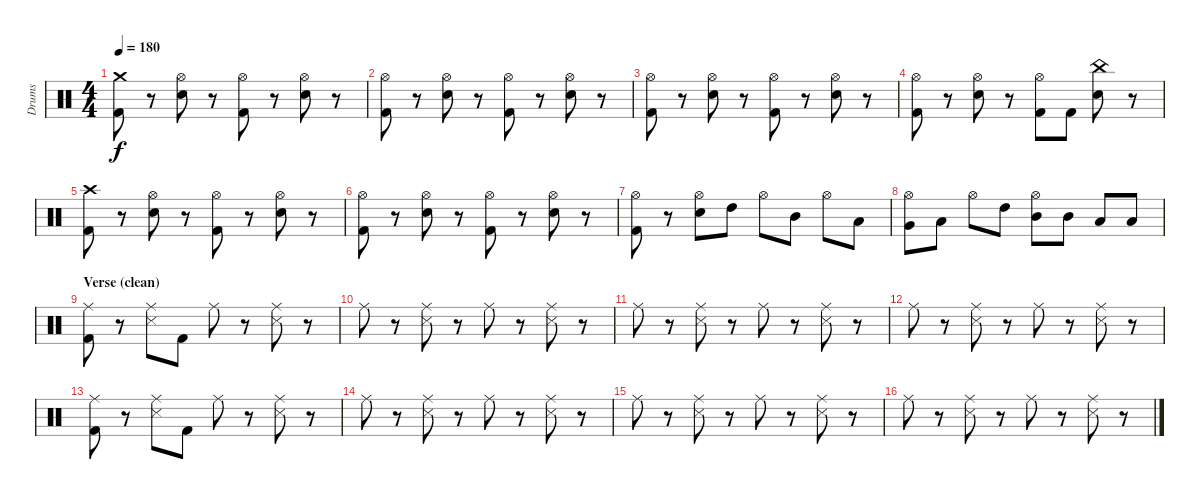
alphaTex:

\track ("Drums" "Drums") {instrument percussion}
\staff {score}
\articulation defaults
\ts (4 4)
\tempo 180
\clef neutral
\ks c
("Crash medium (hit)" "Kick (hit) 2").8{dy f} r.8 ("Hi-Hat (open)" "Snare (hit) 2").8 r.8 ("Hi-Hat (open)" "Kick (hit) 2").8 r.8 ("Hi-Hat (open)" "Snare (hit) 2").8 r.8 |
("Hi-Hat (open)" "Kick (hit) 2").8 r.8 ("Hi-Hat (open)" "Snare (hit) 2").8 r.8 ("Hi-Hat (open)" "Kick (hit) 2").8 r.8 ("Hi-Hat (open)" "Snare (hit) 2").8 r.8 |
("Hi-Hat (open)" "Kick (hit) 2").8 r.8 ("Hi-Hat (open)" "Snare (hit) 2").8 r.8 ("Hi-Hat (open)" "Kick (hit) 2").8 r.8 ("Hi-Hat (open)" "Snare (hit) 2").8 r.8 |
("Hi-Hat (open)" "Kick (hit) 2").8 r.8 ("Hi-Hat (open)" "Snare (hit) 2").8 r.8 ("Hi-Hat (open)" "Kick (hit) 2").8 "Kick (hit) 2".8 ("China (hit)" "Snare (hit) 2").8 r.8 |
("Crash high (hit)" "Kick (hit) 2").8 r.8 ("Hi-Hat (open)" "Snare (hit) 2").8 r.8 ("Hi-Hat (open)" "Kick (hit) 2").8 r.8 ("Hi-Hat (open)" "Snare (hit) 2").8 r.8 |
("Hi-Hat (open)" "Kick (hit) 2").8 r.8 ("Hi-Hat (open)" "Snare (hit) 2").8 r.8 ("Hi-Hat (open)" "Kick (hit) 2").8 r.8 ("Hi-Hat (open)" "Snare (hit) 2").8 r.8 |
("Hi-Hat (open)" "Kick (hit) 2").8 r.8 ("Hi-Hat (open)" "Snare (hit) 2").8 "High Tom (hit)".8 "Hi-Hat (open)".8 "Mid Tom (hit)".8 "Hi-Hat (open)".8 "Low Tom (hit)".8 |
("Hi-Hat (open)" "Very Low Tom (hit)").8 "Low Floor Tom (hit)".8 "Hi-Hat (open)".8 "High Tom (hit)".8 ("Hi-Hat (open)" "Mid Tom (hit)").8 "Mid Tom (hit)".8 "Low Tom (hit)".8 "Low Tom (hit)".8 |
\section ("" "Verse (clean)")
("Ride (middle)" "Kick (hit) 2").8 r.8 ("Ride (middle)" "Snare (side stick) 3").8 "Kick (hit) 2".8 "Ride (middle)".8 r.8 ("Ride (middle)" "Snare (side stick) 3").8 r.8 |
"Ride (middle)".8 r.8 ("Ride (middle)" "Snare (side stick) 3").8 r.8 "Ride (middle)".8 r.8 ("Ride (middle)" "Snare (side stick) 3").8 r.8 |
"Ride (middle)".8 r.8 ("Ride (middle)" "Snare (side stick) 3").8 r.8 "Ride (middle)".8 r.8 ("Ride (middle)" "Snare (side stick) 3").8 r.8 |
"Ride (middle)".8 r.8 ("Ride (middle)" "Snare (side stick) 3").8 r.8 "Ride (middle)".8 r.8 ("Ride (middle)" "Snare (side stick) 3").8 r.8 |
("Ride (middle)" "Kick (hit) 2").8 r.8 ("Ride (middle)" "Snare (side stick) 3").8 "Kick (hit) 2".8 "Ride (middle)".8 r.8 ("Ride (middle)" "Snare (side stick) 3").8 r.8 |
"Ride (middle)".8 r.8 ("Ride (middle)" "Snare (side stick) 3").8 r.8 "Ride (middle)".8 r.8 ("Ride (middle)" "Snare (side stick) 3").8 r.8 |
"Ride (middle)".8 r.8 ("Ride (middle)" "Snare (side stick) 3").8 r.8 "Ride (middle)".8 r.8 ("Ride (middle)" "Snare (side stick) 3").8 r.8 |
"Ride (middle)".8 r.8 ("Ride (middle)" "Snare (side stick) 3").8 r.8 "Ride (middle)".8 r.8 ("Ride (middle)" "Snare (side stick) 3").8 r.8
